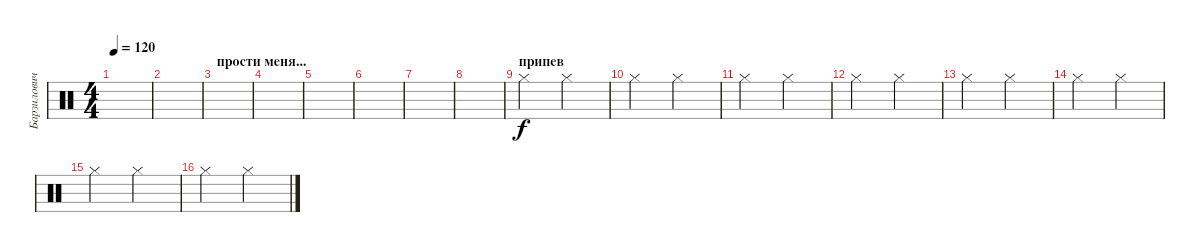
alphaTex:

\track ("Барзилович" "Барзилович") {instrument percussion}
\staff {score}
\articulation defaults
\ts (4 4)
\tempo 120
\clef neutral
\ks c
|
|
\section ("" "прости меня...")
|
|
|
|
|
|
\section ("" "припев")
"Hi-Hat (closed)".2 "Hi-Hat (closed)".2 |
"Hi-Hat (closed)".2 "Hi-Hat (closed)".2 |
"Hi-Hat (closed)".2 "Hi-Hat (closed)".2 |
"Hi-Hat (closed)".2 "Hi-Hat (closed)".2 |
"Hi-Hat (closed)".2 "Hi-Hat (closed)".2 |
"Hi-Hat (closed)".2 "Hi-Hat (closed)".2 |
"Hi-Hat (closed)".2 "Hi-Hat (closed)".2 |
"Hi-Hat (closed)".2 "Hi-Hat (closed)".2
